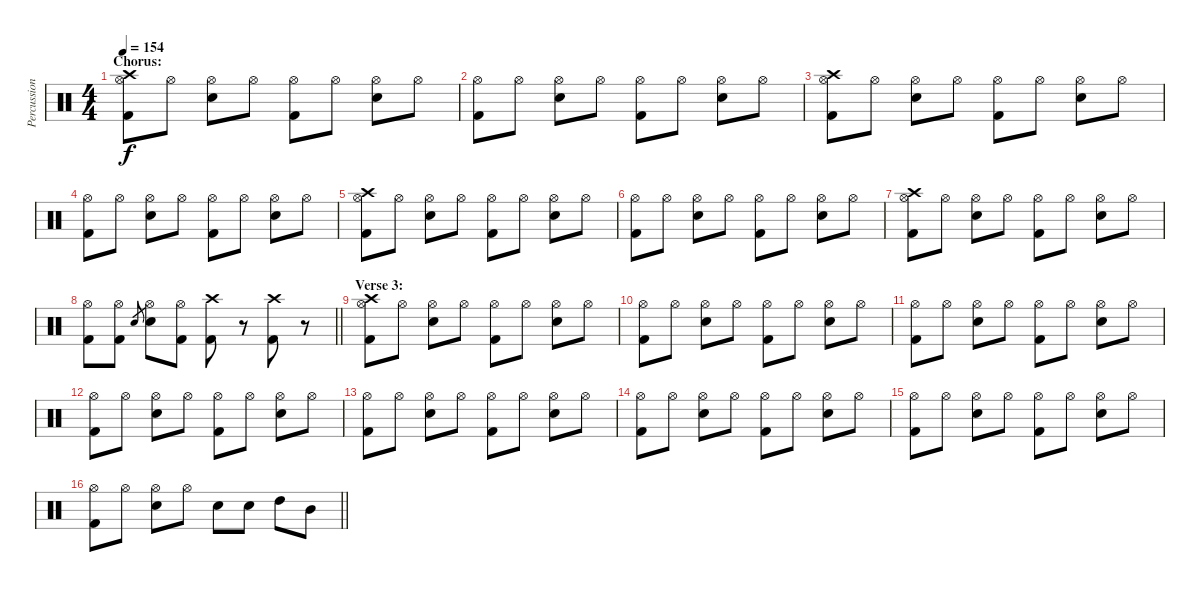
\track ("Percussion" "Percussion") {instrument percussion}
\staff {score}
\articulation defaults
\ts (4 4)
\section ("" "Chorus:")
\tempo 154
\clef neutral
\ks c
("Hi-Hat (open)" "Crash high (hit)" "Kick (hit) 2").8{dy f} "Hi-Hat (open)".8 ("Hi-Hat (open)" "Snare (hit) 2").8 "Hi-Hat (open)".8 ("Hi-Hat (open)" "Kick (hit) 2").8 "Hi-Hat (open)".8 ("Hi-Hat (open)" "Snare (hit) 2").8 "Hi-Hat (open)".8 |
("Hi-Hat (open)" "Kick (hit) 2").8 "Hi-Hat (open)".8 ("Hi-Hat (open)" "Snare (hit) 2").8 "Hi-Hat (open)".8 ("Hi-Hat (open)" "Kick (hit) 2").8 "Hi-Hat (open)".8 ("Hi-Hat (open)" "Snare (hit) 2").8 "Hi-Hat (open)".8 |
("Hi-Hat (open)" "Crash high (hit)" "Kick (hit) 2").8 "Hi-Hat (open)".8 ("Hi-Hat (open)" "Snare (hit) 2").8 "Hi-Hat (open)".8 ("Hi-Hat (open)" "Kick (hit) 2").8 "Hi-Hat (open)".8 ("Hi-Hat (open)" "Snare (hit) 2").8 "Hi-Hat (open)".8 |
("Hi-Hat (open)" "Kick (hit) 2").8 "Hi-Hat (open)".8 ("Hi-Hat (open)" "Snare (hit) 2").8 "Hi-Hat (open)".8 ("Hi-Hat (open)" "Kick (hit) 2").8 "Hi-Hat (open)".8 ("Hi-Hat (open)" "Snare (hit) 2").8 "Hi-Hat (open)".8 |
("Hi-Hat (open)" "Crash high (hit)" "Kick (hit) 2").8 "Hi-Hat (open)".8 ("Hi-Hat (open)" "Snare (hit) 2").8 "Hi-Hat (open)".8 ("Hi-Hat (open)" "Kick (hit) 2").8 "Hi-Hat (open)".8 ("Hi-Hat (open)" "Snare (hit) 2").8 "Hi-Hat (open)".8 |
("Hi-Hat (open)" "Kick (hit) 2").8 "Hi-Hat (open)".8 ("Hi-Hat (open)" "Snare (hit) 2").8 "Hi-Hat (open)".8 ("Hi-Hat (open)" "Kick (hit) 2").8 "Hi-Hat (open)".8 ("Hi-Hat (open)" "Snare (hit) 2").8 "Hi-Hat (open)".8 |
("Hi-Hat (open)" "Crash high (hit)" "Kick (hit) 2").8 "Hi-Hat (open)".8 ("Hi-Hat (open)" "Snare (hit) 2").8 "Hi-Hat (open)".8 ("Hi-Hat (open)" "Kick (hit) 2").8 "Hi-Hat (open)".8 ("Hi-Hat (open)" "Snare (hit) 2").8 "Hi-Hat (open)".8 |
\barLineRight lightlight
("Hi-Hat (open)" "Kick (hit) 2").8 ("Hi-Hat (open)" "Kick (hit) 2").8 "Snare (hit) 2".8{gr} ("Hi-Hat (open)" "Snare (hit) 2").8 ("Hi-Hat (open)" "Kick (hit) 2").8 ("Crash high (hit)" "Kick (hit) 2").8 r.8 ("Crash high (hit)" "Kick (hit) 2").8 r.8 |
\section ("" "Verse 3:")
("Hi-Hat (open)" "Crash high (hit)" "Kick (hit) 2").8 "Hi-Hat (open)".8 ("Hi-Hat (open)" "Snare (hit) 2").8 "Hi-Hat (open)".8 ("Hi-Hat (open)" "Kick (hit) 2").8 "Hi-Hat (open)".8 ("Hi-Hat (open)" "Snare (hit) 2").8 "Hi-Hat (open)".8 |
("Hi-Hat (open)" "Kick (hit) 2").8 "Hi-Hat (open)".8 ("Hi-Hat (open)" "Snare (hit) 2").8 "Hi-Hat (open)".8 ("Hi-Hat (open)" "Kick (hit) 2").8 "Hi-Hat (open)".8 ("Hi-Hat (open)" "Snare (hit) 2").8 "Hi-Hat (open)".8 |
("Hi-Hat (open)" "Kick (hit) 2").8 "Hi-Hat (open)".8 ("Hi-Hat (open)" "Snare (hit) 2").8 "Hi-Hat (open)".8 ("Hi-Hat (open)" "Kick (hit) 2").8 "Hi-Hat (open)".8 ("Hi-Hat (open)" "Snare (hit) 2").8 "Hi-Hat (open)".8 |
("Hi-Hat (open)" "Kick (hit) 2").8 "Hi-Hat (open)".8 ("Hi-Hat (open)" "Snare (hit) 2").8 "Hi-Hat (open)".8 ("Hi-Hat (open)" "Kick (hit) 2").8 "Hi-Hat (open)".8 ("Hi-Hat (open)" "Snare (hit) 2").8 "Hi-Hat (open)".8 |
("Hi-Hat (open)" "Kick (hit) 2").8 "Hi-Hat (open)".8 ("Hi-Hat (open)" "Snare (hit) 2").8 "Hi-Hat (open)".8 ("Hi-Hat (open)" "Kick (hit) 2").8 "Hi-Hat (open)".8 ("Hi-Hat (open)" "Snare (hit) 2").8 "Hi-Hat (open)".8 |
("Hi-Hat (open)" "Kick (hit) 2").8 "Hi-Hat (open)".8 ("Hi-Hat (open)" "Snare (hit) 2").8 "Hi-Hat (open)".8 ("Hi-Hat (open)" "Kick (hit) 2").8 "Hi-Hat (open)".8 ("Hi-Hat (open)" "Snare (hit) 2").8 "Hi-Hat (open)".8 |
("Hi-Hat (open)" "Kick (hit) 2").8 "Hi-Hat (open)".8 ("Hi-Hat (open)" "Snare (hit) 2").8 "Hi-Hat (open)".8 ("Hi-Hat (open)" "Kick (hit) 2").8 "Hi-Hat (open)".8 ("Hi-Hat (open)" "Snare (hit) 2").8 "Hi-Hat (open)".8 |
\barLineRight lightlight
("Hi-Hat (open)" "Kick (hit) 2").8 "Hi-Hat (open)".8 ("Hi-Hat (open)" "Snare (hit) 2").8 "Hi-Hat (open)".8 "Snare (hit) 2".8 "Snare (hit) 2".8 "High Tom (hit)".8 "Mid Tom (hit)".8
